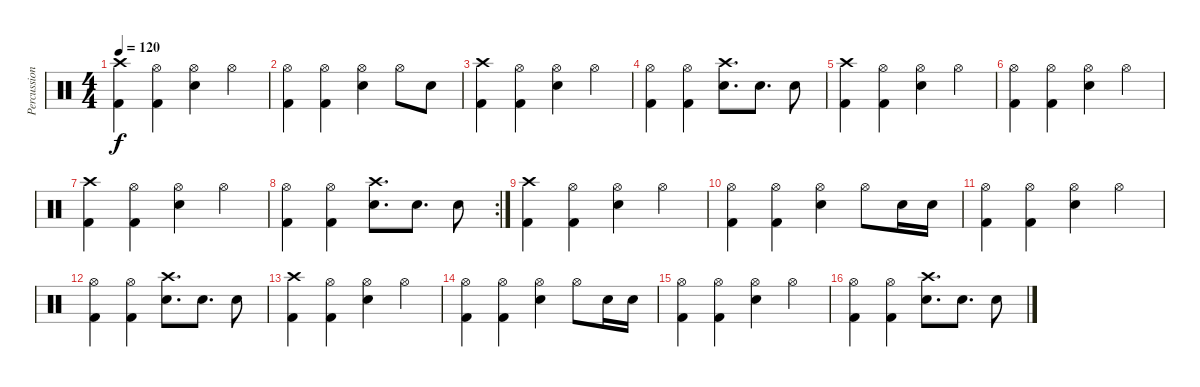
\track ("Percussion" "Percussion") {instrument percussion}
\staff {score}
\articulation defaults
\ts (4 4)
\tempo 120
\clef neutral
\ks c
("Crash high (hit)" "Kick (hit) 2").4{dy f} ("Hi-Hat (open)" "Kick (hit) 2").4 ("Hi-Hat (open)" "Electric Snare (hit)").4 "Hi-Hat (open)".4 |
("Hi-Hat (open)" "Kick (hit) 2").4 ("Hi-Hat (open)" "Kick (hit) 2").4 ("Hi-Hat (open)" "Electric Snare (hit)").4 "Hi-Hat (open)".8 "Electric Snare (hit)".8 |
("Crash high (hit)" "Kick (hit) 2").4 ("Hi-Hat (open)" "Kick (hit) 2").4 ("Hi-Hat (open)" "Electric Snare (hit)").4 "Hi-Hat (open)".4 |
("Hi-Hat (open)" "Kick (hit) 2").4 ("Hi-Hat (open)" "Kick (hit) 2").4 ("Crash high (hit)" "Electric Snare (hit)").8{d} "Electric Snare (hit)".8{d} "Electric Snare (hit)".8 |
("Crash high (hit)" "Kick (hit) 2").4 ("Hi-Hat (open)" "Kick (hit) 2").4 ("Hi-Hat (open)" "Electric Snare (hit)").4 "Hi-Hat (open)".4 |
("Hi-Hat (open)" "Kick (hit) 2").4 ("Hi-Hat (open)" "Kick (hit) 2").4 ("Hi-Hat (open)" "Electric Snare (hit)").4 "Hi-Hat (open)".4 |
("Crash high (hit)" "Kick (hit) 2").4 ("Hi-Hat (open)" "Kick (hit) 2").4 ("Hi-Hat (open)" "Electric Snare (hit)").4 "Hi-Hat (open)".4 |
\rc 2
("Hi-Hat (open)" "Kick (hit) 2").4 ("Hi-Hat (open)" "Kick (hit) 2").4 ("Crash high (hit)" "Electric Snare (hit)").8{d} "Electric Snare (hit)".8{d} "Electric Snare (hit)".8 |
("Crash high (hit)" "Kick (hit) 2").4 ("Hi-Hat (open)" "Kick (hit) 2").4 ("Hi-Hat (open)" "Electric Snare (hit)").4 "Hi-Hat (open)".4 |
("Hi-Hat (open)" "Kick (hit) 2").4 ("Hi-Hat (open)" "Kick (hit) 2").4 ("Hi-Hat (open)" "Electric Snare (hit)").4 "Hi-Hat (open)".8 "Electric Snare (hit)".16 "Electric Snare (hit)".16 |
("Hi-Hat (open)" "Kick (hit) 2").4 ("Hi-Hat (open)" "Kick (hit) 2").4 ("Hi-Hat (open)" "Electric Snare (hit)").4 "Hi-Hat (open)".4 |
("Hi-Hat (open)" "Kick (hit) 2").4 ("Hi-Hat (open)" "Kick (hit) 2").4 ("Crash high (hit)" "Electric Snare (hit)").8{d} "Electric Snare (hit)".8{d} "Electric Snare (hit)".8 |
("Crash high (hit)" "Kick (hit) 2").4 ("Hi-Hat (open)" "Kick (hit) 2").4 ("Hi-Hat (open)" "Electric Snare (hit)").4 "Hi-Hat (open)".4 |
("Hi-Hat (open)" "Kick (hit) 2").4 ("Hi-Hat (open)" "Kick (hit) 2").4 ("Hi-Hat (open)" "Electric Snare (hit)").4 "Hi-Hat (open)".8 "Electric Snare (hit)".16 "Electric Snare (hit)".16 |
("Hi-Hat (open)" "Kick (hit) 2").4 ("Hi-Hat (open)" "Kick (hit) 2").4 ("Hi-Hat (open)" "Electric Snare (hit)").4 "Hi-Hat (open)".4 |
("Hi-Hat (open)" "Kick (hit) 2").4 ("Hi-Hat (open)" "Kick (hit) 2").4 ("Crash high (hit)" "Electric Snare (hit)").8{d} "Electric Snare (hit)".8{d} "Electric Snare (hit)".8
